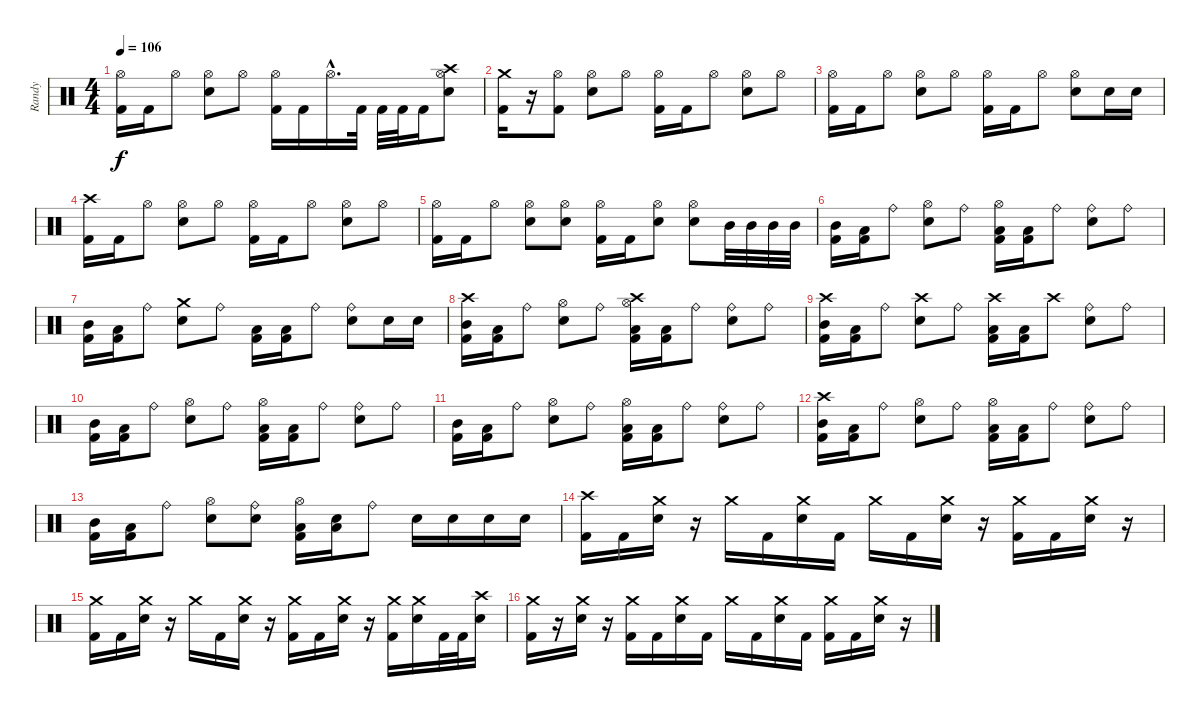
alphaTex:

\track ("Randy" "Randy") {instrument percussion}
\staff {score}
\articulation defaults
\ts (4 4)
\tempo 106
\clef neutral
\ks c
("Hi-Hat (open)" "Kick (hit) 2").16{dy f} "Kick (hit) 2".16 "Hi-Hat (open)".8 ("Hi-Hat (open)" "Electric Snare (hit)").8 "Hi-Hat (open)".8 ("Hi-Hat (open)" "Kick (hit) 2").16 "Kick (hit) 2".16 "Hi-Hat (open)"{hac}.16{d} "Kick (hit) 2".32 "Kick (hit) 2".32 "Kick (hit) 2".32 "Kick (hit) 2".16 ("Hi-Hat (open)" "Crash high (hit)" "Electric Snare (hit)").8 |
("Crash medium (hit)" "Kick (hit) 2").16 r.16 ("Hi-Hat (open)" "Kick (hit) 2").8 ("Hi-Hat (open)" "Electric Snare (hit)").8 "Hi-Hat (open)".8 ("Hi-Hat (open)" "Kick (hit) 2").16 "Kick (hit) 2".16 "Hi-Hat (open)".8 ("Hi-Hat (open)" "Electric Snare (hit)").8 "Hi-Hat (open)".8 |
("Hi-Hat (open)" "Kick (hit) 2").16 "Kick (hit) 2".16 "Hi-Hat (open)".8 ("Hi-Hat (open)" "Electric Snare (hit)").8 "Hi-Hat (open)".8 ("Hi-Hat (open)" "Kick (hit) 2").16 "Kick (hit) 2".16 "Hi-Hat (open)".8 ("Hi-Hat (open)" "Electric Snare (hit)").8 "Electric Snare (hit)".16 "Electric Snare (hit)".16 |
("Crash high (hit)" "Kick (hit) 2").16 "Kick (hit) 2".16 "Hi-Hat (open)".8 ("Hi-Hat (open)" "Electric Snare (hit)").8 "Hi-Hat (open)".8 ("Hi-Hat (open)" "Kick (hit) 2").16 "Kick (hit) 2".16 "Hi-Hat (open)".8 ("Hi-Hat (open)" "Electric Snare (hit)").8 "Hi-Hat (open)".8 |
("Hi-Hat (open)" "Kick (hit) 2").16 "Kick (hit) 2".16 "Hi-Hat (open)".8 ("Hi-Hat (open)" "Electric Snare (hit)").8 ("Hi-Hat (open)" "Electric Snare (hit)").8 ("Hi-Hat (open)" "Kick (hit) 2").16 "Kick (hit) 2".16 ("Hi-Hat (open)" "Electric Snare (hit)").8 ("Hi-Hat (open)" "Electric Snare (hit)").8 "Mid Tom (hit)".32 "Mid Tom (hit)".32 "Mid Tom (hit)".32 "Mid Tom (hit)".32 |
("Mid Tom (hit)" "Kick (hit) 2").16 ("Low Tom (hit)" "Kick (hit) 2").16 "Ride (bell)".8 ("Hi-Hat (open)" "Electric Snare (hit)").8 "Ride (bell)".8 ("Hi-Hat (open)" "Low Tom (hit)" "Kick (hit) 2").16 ("Low Tom (hit)" "Kick (hit) 2").16 "Ride (bell)".8 ("Ride (bell)" "Electric Snare (hit)").8 "Ride (bell)".8 |
("Mid Tom (hit)" "Kick (hit) 2").16 ("Low Tom (hit)" "Kick (hit) 2").16 "Ride (bell)".8 ("Crash medium (hit)" "Electric Snare (hit)").8 "Ride (bell)".8 ("Low Tom (hit)" "Kick (hit) 2").16 ("Low Tom (hit)" "Kick (hit) 2").16 "Ride (bell)".8 ("Ride (bell)" "Electric Snare (hit)").8 "Electric Snare (hit)".16 "Electric Snare (hit)".16 |
("Crash high (hit)" "Mid Tom (hit)" "Kick (hit) 2").16 ("Low Tom (hit)" "Kick (hit) 2").16 "Ride (bell)".8 ("Hi-Hat (open)" "Electric Snare (hit)").8 "Ride (bell)".8 ("Crash high (hit)" "Hi-Hat (open)" "Low Tom (hit)" "Kick (hit) 2").16 ("Low Tom (hit)" "Kick (hit) 2").16 "Ride (bell)".8 ("Ride (bell)" "Electric Snare (hit)").8 "Ride (bell)".8 |
("Crash high (hit)" "Mid Tom (hit)" "Kick (hit) 2").16 ("Low Tom (hit)" "Kick (hit) 2").16 "Ride (bell)".8 ("Crash high (hit)" "Electric Snare (hit)").8 "Ride (bell)".8 ("Crash high (hit)" "Low Tom (hit)" "Kick (hit) 2").16 ("Low Tom (hit)" "Kick (hit) 2").16 "Crash high (hit)".8 ("Ride (bell)" "Electric Snare (hit)").8 "Ride (bell)".8 |
("Mid Tom (hit)" "Kick (hit) 2").16 ("Low Tom (hit)" "Kick (hit) 2").16 "Ride (bell)".8 ("Hi-Hat (open)" "Electric Snare (hit)").8 "Ride (bell)".8 ("Hi-Hat (open)" "Low Tom (hit)" "Kick (hit) 2").16 ("Low Tom (hit)" "Kick (hit) 2").16 "Ride (bell)".8 ("Ride (bell)" "Electric Snare (hit)").8 "Ride (bell)".8 |
("Mid Tom (hit)" "Kick (hit) 2").16 ("Low Tom (hit)" "Kick (hit) 2").16 "Ride (bell)".8 ("Hi-Hat (open)" "Electric Snare (hit)").8 "Ride (bell)".8 ("Hi-Hat (open)" "Low Tom (hit)" "Kick (hit) 2").16 ("Low Tom (hit)" "Kick (hit) 2").16 "Ride (bell)".8 ("Ride (bell)" "Electric Snare (hit)").8 "Ride (bell)".8 |
("Crash high (hit)" "Mid Tom (hit)" "Kick (hit) 2").16 ("Low Tom (hit)" "Kick (hit) 2").16 "Ride (bell)".8 ("Hi-Hat (open)" "Electric Snare (hit)").8 "Ride (bell)".8 ("Hi-Hat (open)" "Low Tom (hit)" "Kick (hit) 2").16 ("Low Tom (hit)" "Kick (hit) 2").16 "Ride (bell)".8 ("Ride (bell)" "Electric Snare (hit)").8 "Ride (bell)".8 |
("Mid Tom (hit)" "Kick (hit) 2").16 ("Low Tom (hit)" "Kick (hit) 2").16 "Ride (bell)".8 ("Hi-Hat (open)" "Electric Snare (hit)").8 ("Ride (bell)" "Electric Snare (hit)").8 ("Hi-Hat (open)" "Low Tom (hit)" "Kick (hit) 2").16 ("Low Tom (hit)" "Electric Snare (hit)").16 "Ride (bell)".8 "Electric Snare (hit)".16 "Electric Snare (hit)".16 "Electric Snare (hit)".16 "Electric Snare (hit)".16 |
("Crash high (hit)" "Kick (hit) 2").16 "Kick (hit) 2".16 ("Crash medium (hit)" "Electric Snare (hit)").16 r.16 "Crash medium (hit)".16 "Kick (hit) 2".16 ("Crash medium (hit)" "Electric Snare (hit)").16 "Kick (hit) 2".16 "Crash medium (hit)".16 "Kick (hit) 2".16 ("Crash medium (hit)" "Electric Snare (hit)").16 r.16 ("Crash medium (hit)" "Kick (hit) 2").16 "Kick (hit) 2".16 ("Crash medium (hit)" "Electric Snare (hit)").16 r.16 |
("Crash medium (hit)" "Kick (hit) 2").16 "Kick (hit) 2".16 ("Crash medium (hit)" "Electric Snare (hit)").16 r.16 "Crash medium (hit)".16 "Kick (hit) 2".16 ("Crash medium (hit)" "Electric Snare (hit)").16 r.16 ("Crash medium (hit)" "Kick (hit) 2").16 "Kick (hit) 2".16 ("Crash medium (hit)" "Electric Snare (hit)").16 r.16 ("Crash medium (hit)" "Kick (hit) 2").16 ("Crash medium (hit)" "Electric Snare (hit)").16 "Kick (hit) 2".32 "Kick (hit) 2".32 ("Crash high (hit)" "Electric Snare (hit)").16 |
("Crash medium (hit)" "Kick (hit) 2").16 r.16 ("Crash medium (hit)" "Electric Snare (hit)").16 r.16 ("Crash medium (hit)" "Kick (hit) 2").16 "Kick (hit) 2".16 ("Crash medium (hit)" "Electric Snare (hit)").16 "Kick (hit) 2".16 "Crash medium (hit)".16 "Kick (hit) 2".16 ("Crash medium (hit)" "Electric Snare (hit)").16 "Kick (hit) 2".16 ("Crash medium (hit)" "Kick (hit) 2").16 "Kick (hit) 2".16 ("Crash medium (hit)" "Electric Snare (hit)").16 r.16
